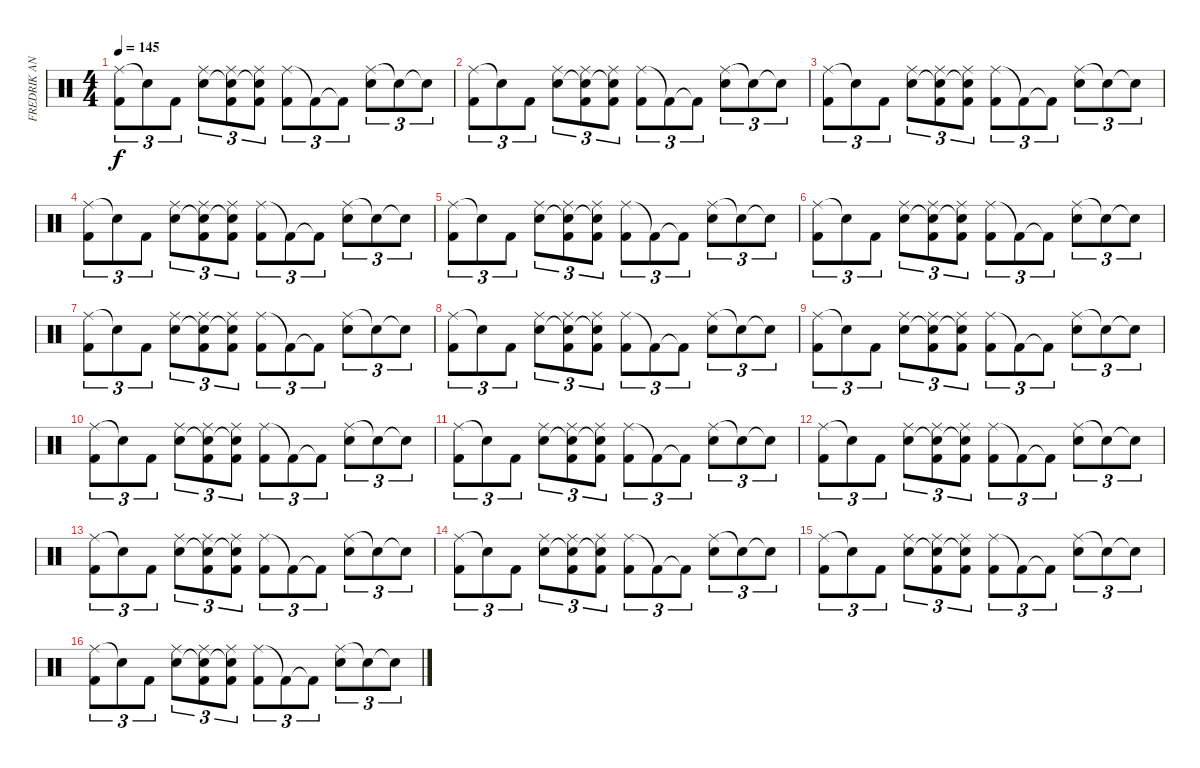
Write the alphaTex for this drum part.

\track ("FREDRIK ANDERSSON" "FREDRIK AN") {instrument percussion}
\staff {score}
\articulation defaults
\ts (4 4)
\tempo 145
\clef neutral
\ks c
("Ride (middle)" "Kick (hit) 2").8{tu (3 2) dy f} "Snare (hit)"{t}.8{tu (3 2)} "Kick (hit) 2".8{tu (3 2)} ("Ride (middle)" "Snare (hit) 2").8{tu (3 2)} ("Ride (middle)" "Snare (hit)"{t} "Kick (hit) 2").8{tu (3 2)} ("Ride (middle)" "Snare (hit)"{t} "Kick (hit) 2").8{tu (3 2)} ("Ride (middle)" "Kick (hit) 2").8{tu (3 2)} "Kick (hit) 2"{t}.8{tu (3 2)} "Kick (hit) 2"{t}.8{tu (3 2)} ("Ride (middle)" "Snare (hit) 2").8{tu (3 2)} "Snare (hit)"{t}.8{tu (3 2)} "Snare (hit)"{t}.8{tu (3 2)} |
("Ride (middle)" "Kick (hit) 2").8{tu (3 2)} "Snare (hit)"{t}.8{tu (3 2)} "Kick (hit) 2".8{tu (3 2)} ("Ride (middle)" "Snare (hit) 2").8{tu (3 2)} ("Ride (middle)" "Snare (hit)"{t} "Kick (hit) 2").8{tu (3 2)} ("Ride (middle)" "Snare (hit)"{t} "Kick (hit) 2").8{tu (3 2)} ("Ride (middle)" "Kick (hit) 2").8{tu (3 2)} "Kick (hit) 2"{t}.8{tu (3 2)} "Kick (hit) 2"{t}.8{tu (3 2)} ("Ride (middle)" "Snare (hit) 2").8{tu (3 2)} "Snare (hit)"{t}.8{tu (3 2)} "Snare (hit)"{t}.8{tu (3 2)} |
("Ride (middle)" "Kick (hit) 2").8{tu (3 2)} "Snare (hit)"{t}.8{tu (3 2)} "Kick (hit) 2".8{tu (3 2)} ("Ride (middle)" "Snare (hit) 2").8{tu (3 2)} ("Ride (middle)" "Snare (hit)"{t} "Kick (hit) 2").8{tu (3 2)} ("Ride (middle)" "Snare (hit)"{t} "Kick (hit) 2").8{tu (3 2)} ("Ride (middle)" "Kick (hit) 2").8{tu (3 2)} "Kick (hit) 2"{t}.8{tu (3 2)} "Kick (hit) 2"{t}.8{tu (3 2)} ("Ride (middle)" "Snare (hit) 2").8{tu (3 2)} "Snare (hit)"{t}.8{tu (3 2)} "Snare (hit)"{t}.8{tu (3 2)} |
("Ride (middle)" "Kick (hit) 2").8{tu (3 2)} "Snare (hit)"{t}.8{tu (3 2)} "Kick (hit) 2".8{tu (3 2)} ("Ride (middle)" "Snare (hit) 2").8{tu (3 2)} ("Ride (middle)" "Snare (hit)"{t} "Kick (hit) 2").8{tu (3 2)} ("Ride (middle)" "Snare (hit)"{t} "Kick (hit) 2").8{tu (3 2)} ("Ride (middle)" "Kick (hit) 2").8{tu (3 2)} "Kick (hit) 2"{t}.8{tu (3 2)} "Kick (hit) 2"{t}.8{tu (3 2)} ("Ride (middle)" "Snare (hit) 2").8{tu (3 2)} "Snare (hit)"{t}.8{tu (3 2)} "Snare (hit)"{t}.8{tu (3 2)} |
("Ride (middle)" "Kick (hit) 2").8{tu (3 2)} "Snare (hit)"{t}.8{tu (3 2)} "Kick (hit) 2".8{tu (3 2)} ("Ride (middle)" "Snare (hit) 2").8{tu (3 2)} ("Ride (middle)" "Snare (hit)"{t} "Kick (hit) 2").8{tu (3 2)} ("Ride (middle)" "Snare (hit)"{t} "Kick (hit) 2").8{tu (3 2)} ("Ride (middle)" "Kick (hit) 2").8{tu (3 2)} "Kick (hit) 2"{t}.8{tu (3 2)} "Kick (hit) 2"{t}.8{tu (3 2)} ("Ride (middle)" "Snare (hit) 2").8{tu (3 2)} "Snare (hit)"{t}.8{tu (3 2)} "Snare (hit)"{t}.8{tu (3 2)} |
("Ride (middle)" "Kick (hit) 2").8{tu (3 2)} "Snare (hit)"{t}.8{tu (3 2)} "Kick (hit) 2".8{tu (3 2)} ("Ride (middle)" "Snare (hit) 2").8{tu (3 2)} ("Ride (middle)" "Snare (hit)"{t} "Kick (hit) 2").8{tu (3 2)} ("Ride (middle)" "Snare (hit)"{t} "Kick (hit) 2").8{tu (3 2)} ("Ride (middle)" "Kick (hit) 2").8{tu (3 2)} "Kick (hit) 2"{t}.8{tu (3 2)} "Kick (hit) 2"{t}.8{tu (3 2)} ("Ride (middle)" "Snare (hit) 2").8{tu (3 2)} "Snare (hit)"{t}.8{tu (3 2)} "Snare (hit)"{t}.8{tu (3 2)} |
("Ride (middle)" "Kick (hit) 2").8{tu (3 2)} "Snare (hit)"{t}.8{tu (3 2)} "Kick (hit) 2".8{tu (3 2)} ("Ride (middle)" "Snare (hit) 2").8{tu (3 2)} ("Ride (middle)" "Snare (hit)"{t} "Kick (hit) 2").8{tu (3 2)} ("Ride (middle)" "Snare (hit)"{t} "Kick (hit) 2").8{tu (3 2)} ("Ride (middle)" "Kick (hit) 2").8{tu (3 2)} "Kick (hit) 2"{t}.8{tu (3 2)} "Kick (hit) 2"{t}.8{tu (3 2)} ("Ride (middle)" "Snare (hit) 2").8{tu (3 2)} "Snare (hit)"{t}.8{tu (3 2)} "Snare (hit)"{t}.8{tu (3 2)} |
("Ride (middle)" "Kick (hit) 2").8{tu (3 2)} "Snare (hit)"{t}.8{tu (3 2)} "Kick (hit) 2".8{tu (3 2)} ("Ride (middle)" "Snare (hit) 2").8{tu (3 2)} ("Ride (middle)" "Snare (hit)"{t} "Kick (hit) 2").8{tu (3 2)} ("Ride (middle)" "Snare (hit)"{t} "Kick (hit) 2").8{tu (3 2)} ("Ride (middle)" "Kick (hit) 2").8{tu (3 2)} "Kick (hit) 2"{t}.8{tu (3 2)} "Kick (hit) 2"{t}.8{tu (3 2)} ("Ride (middle)" "Snare (hit) 2").8{tu (3 2)} "Snare (hit)"{t}.8{tu (3 2)} "Snare (hit)"{t}.8{tu (3 2)} |
("Ride (middle)" "Kick (hit) 2").8{tu (3 2)} "Snare (hit)"{t}.8{tu (3 2)} "Kick (hit) 2".8{tu (3 2)} ("Ride (middle)" "Snare (hit) 2").8{tu (3 2)} ("Ride (middle)" "Snare (hit)"{t} "Kick (hit) 2").8{tu (3 2)} ("Ride (middle)" "Snare (hit)"{t} "Kick (hit) 2").8{tu (3 2)} ("Ride (middle)" "Kick (hit) 2").8{tu (3 2)} "Kick (hit) 2"{t}.8{tu (3 2)} "Kick (hit) 2"{t}.8{tu (3 2)} ("Ride (middle)" "Snare (hit) 2").8{tu (3 2)} "Snare (hit)"{t}.8{tu (3 2)} "Snare (hit)"{t}.8{tu (3 2)} |
("Ride (middle)" "Kick (hit) 2").8{tu (3 2)} "Snare (hit)"{t}.8{tu (3 2)} "Kick (hit) 2".8{tu (3 2)} ("Ride (middle)" "Snare (hit) 2").8{tu (3 2)} ("Ride (middle)" "Snare (hit)"{t} "Kick (hit) 2").8{tu (3 2)} ("Ride (middle)" "Snare (hit)"{t} "Kick (hit) 2").8{tu (3 2)} ("Ride (middle)" "Kick (hit) 2").8{tu (3 2)} "Kick (hit) 2"{t}.8{tu (3 2)} "Kick (hit) 2"{t}.8{tu (3 2)} ("Ride (middle)" "Snare (hit) 2").8{tu (3 2)} "Snare (hit)"{t}.8{tu (3 2)} "Snare (hit)"{t}.8{tu (3 2)} |
("Ride (middle)" "Kick (hit) 2").8{tu (3 2)} "Snare (hit)"{t}.8{tu (3 2)} "Kick (hit) 2".8{tu (3 2)} ("Ride (middle)" "Snare (hit) 2").8{tu (3 2)} ("Ride (middle)" "Snare (hit)"{t} "Kick (hit) 2").8{tu (3 2)} ("Ride (middle)" "Snare (hit)"{t} "Kick (hit) 2").8{tu (3 2)} ("Ride (middle)" "Kick (hit) 2").8{tu (3 2)} "Kick (hit) 2"{t}.8{tu (3 2)} "Kick (hit) 2"{t}.8{tu (3 2)} ("Ride (middle)" "Snare (hit) 2").8{tu (3 2)} "Snare (hit)"{t}.8{tu (3 2)} "Snare (hit)"{t}.8{tu (3 2)} |
("Ride (middle)" "Kick (hit) 2").8{tu (3 2)} "Snare (hit)"{t}.8{tu (3 2)} "Kick (hit) 2".8{tu (3 2)} ("Ride (middle)" "Snare (hit) 2").8{tu (3 2)} ("Ride (middle)" "Snare (hit)"{t} "Kick (hit) 2").8{tu (3 2)} ("Ride (middle)" "Snare (hit)"{t} "Kick (hit) 2").8{tu (3 2)} ("Ride (middle)" "Kick (hit) 2").8{tu (3 2)} "Kick (hit) 2"{t}.8{tu (3 2)} "Kick (hit) 2"{t}.8{tu (3 2)} ("Ride (middle)" "Snare (hit) 2").8{tu (3 2)} "Snare (hit)"{t}.8{tu (3 2)} "Snare (hit)"{t}.8{tu (3 2)} |
("Ride (middle)" "Kick (hit) 2").8{tu (3 2)} "Snare (hit)"{t}.8{tu (3 2)} "Kick (hit) 2".8{tu (3 2)} ("Ride (middle)" "Snare (hit) 2").8{tu (3 2)} ("Ride (middle)" "Snare (hit)"{t} "Kick (hit) 2").8{tu (3 2)} ("Ride (middle)" "Snare (hit)"{t} "Kick (hit) 2").8{tu (3 2)} ("Ride (middle)" "Kick (hit) 2").8{tu (3 2)} "Kick (hit) 2"{t}.8{tu (3 2)} "Kick (hit) 2"{t}.8{tu (3 2)} ("Ride (middle)" "Snare (hit) 2").8{tu (3 2)} "Snare (hit)"{t}.8{tu (3 2)} "Snare (hit)"{t}.8{tu (3 2)} |
("Ride (middle)" "Kick (hit) 2").8{tu (3 2)} "Snare (hit)"{t}.8{tu (3 2)} "Kick (hit) 2".8{tu (3 2)} ("Ride (middle)" "Snare (hit) 2").8{tu (3 2)} ("Ride (middle)" "Snare (hit)"{t} "Kick (hit) 2").8{tu (3 2)} ("Ride (middle)" "Snare (hit)"{t} "Kick (hit) 2").8{tu (3 2)} ("Ride (middle)" "Kick (hit) 2").8{tu (3 2)} "Kick (hit) 2"{t}.8{tu (3 2)} "Kick (hit) 2"{t}.8{tu (3 2)} ("Ride (middle)" "Snare (hit) 2").8{tu (3 2)} "Snare (hit)"{t}.8{tu (3 2)} "Snare (hit)"{t}.8{tu (3 2)} |
("Ride (middle)" "Kick (hit) 2").8{tu (3 2)} "Snare (hit)"{t}.8{tu (3 2)} "Kick (hit) 2".8{tu (3 2)} ("Ride (middle)" "Snare (hit) 2").8{tu (3 2)} ("Ride (middle)" "Snare (hit)"{t} "Kick (hit) 2").8{tu (3 2)} ("Ride (middle)" "Snare (hit)"{t} "Kick (hit) 2").8{tu (3 2)} ("Ride (middle)" "Kick (hit) 2").8{tu (3 2)} "Kick (hit) 2"{t}.8{tu (3 2)} "Kick (hit) 2"{t}.8{tu (3 2)} ("Ride (middle)" "Snare (hit) 2").8{tu (3 2)} "Snare (hit)"{t}.8{tu (3 2)} "Snare (hit)"{t}.8{tu (3 2)} |
("Ride (middle)" "Kick (hit) 2").8{tu (3 2)} "Snare (hit)"{t}.8{tu (3 2)} "Kick (hit) 2".8{tu (3 2)} ("Ride (middle)" "Snare (hit) 2").8{tu (3 2)} ("Ride (middle)" "Snare (hit)"{t} "Kick (hit) 2").8{tu (3 2)} ("Ride (middle)" "Snare (hit)"{t} "Kick (hit) 2").8{tu (3 2)} ("Ride (middle)" "Kick (hit) 2").8{tu (3 2)} "Kick (hit) 2"{t}.8{tu (3 2)} "Kick (hit) 2"{t}.8{tu (3 2)} ("Ride (middle)" "Snare (hit) 2").8{tu (3 2)} "Snare (hit)"{t}.8{tu (3 2)} "Snare (hit)"{t}.8{tu (3 2)}
